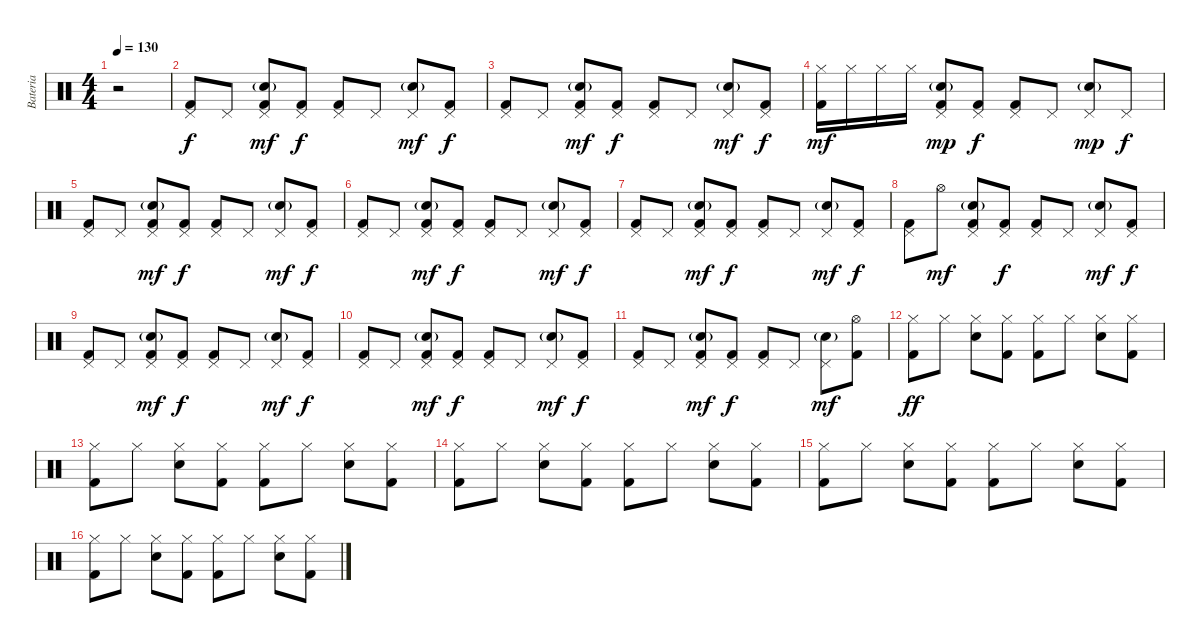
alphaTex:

\track ("Bateria" "Bateria") {instrument percussion}
\staff {score}
\articulation defaults
\ts (4 4)
\tempo 130
\clef neutral
\ks c
r.2{dy f} |
("Pedal Hi-Hat (hit)" "Kick (hit) 2").8 "Pedal Hi-Hat (hit)".8 ("Pedal Hi-Hat (hit)" "Snare (hit) 2"{g} "Kick (hit) 2").8{dy mf} ("Pedal Hi-Hat (hit)" "Kick (hit) 2").8{dy f} ("Pedal Hi-Hat (hit)" "Kick (hit) 2").8 "Pedal Hi-Hat (hit)".8 ("Pedal Hi-Hat (hit)" "Snare (hit) 2"{g}).8{dy mf} ("Pedal Hi-Hat (hit)" "Kick (hit) 2").8{dy f} |
("Pedal Hi-Hat (hit)" "Kick (hit) 2").8 "Pedal Hi-Hat (hit)".8 ("Pedal Hi-Hat (hit)" "Snare (hit) 2"{g} "Kick (hit) 2").8{dy mf} ("Pedal Hi-Hat (hit)" "Kick (hit) 2").8{dy f} ("Pedal Hi-Hat (hit)" "Kick (hit) 2").8 "Pedal Hi-Hat (hit)".8 ("Pedal Hi-Hat (hit)" "Snare (hit) 2"{g}).8{dy mf} ("Pedal Hi-Hat (hit)" "Kick (hit) 2").8{dy f} |
("Hi-Hat (closed)" "Kick (hit) 2").16{dy mf} "Hi-Hat (closed)".16 "Hi-Hat (closed)".16 "Hi-Hat (closed)".16 ("Pedal Hi-Hat (hit)" "Snare (hit) 2"{g} "Kick (hit) 2").8{dy mp} ("Pedal Hi-Hat (hit)" "Kick (hit) 2").8{dy f} ("Pedal Hi-Hat (hit)" "Kick (hit) 2").8 "Pedal Hi-Hat (hit)".8 ("Pedal Hi-Hat (hit)" "Snare (hit) 2"{g}).8{dy mp} "Pedal Hi-Hat (hit)".8{dy f} |
("Pedal Hi-Hat (hit)" "Kick (hit) 2").8 "Pedal Hi-Hat (hit)".8 ("Pedal Hi-Hat (hit)" "Snare (hit) 2"{g} "Kick (hit) 2").8{dy mf} ("Pedal Hi-Hat (hit)" "Kick (hit) 2").8{dy f} ("Pedal Hi-Hat (hit)" "Kick (hit) 2").8 "Pedal Hi-Hat (hit)".8 ("Pedal Hi-Hat (hit)" "Snare (hit) 2"{g}).8{dy mf} ("Pedal Hi-Hat (hit)" "Kick (hit) 2").8{dy f} |
("Pedal Hi-Hat (hit)" "Kick (hit) 2").8 "Pedal Hi-Hat (hit)".8 ("Pedal Hi-Hat (hit)" "Snare (hit) 2"{g} "Kick (hit) 2").8{dy mf} ("Pedal Hi-Hat (hit)" "Kick (hit) 2").8{dy f} ("Pedal Hi-Hat (hit)" "Kick (hit) 2").8 "Pedal Hi-Hat (hit)".8 ("Pedal Hi-Hat (hit)" "Snare (hit) 2"{g}).8{dy mf} ("Pedal Hi-Hat (hit)" "Kick (hit) 2").8{dy f} |
("Pedal Hi-Hat (hit)" "Kick (hit) 2").8 "Pedal Hi-Hat (hit)".8 ("Pedal Hi-Hat (hit)" "Snare (hit) 2"{g} "Kick (hit) 2").8{dy mf} ("Pedal Hi-Hat (hit)" "Kick (hit) 2").8{dy f} ("Pedal Hi-Hat (hit)" "Kick (hit) 2").8 "Pedal Hi-Hat (hit)".8 ("Pedal Hi-Hat (hit)" "Snare (hit) 2"{g}).8{dy mf} ("Pedal Hi-Hat (hit)" "Kick (hit) 2").8{dy f} |
("Pedal Hi-Hat (hit)" "Kick (hit) 2").8 "Hi-Hat (open)".8{dy mf} ("Pedal Hi-Hat (hit)" "Snare (hit) 2"{g} "Kick (hit) 2").8 ("Pedal Hi-Hat (hit)" "Kick (hit) 2").8{dy f} ("Pedal Hi-Hat (hit)" "Kick (hit) 2").8 "Pedal Hi-Hat (hit)".8 ("Pedal Hi-Hat (hit)" "Snare (hit) 2"{g}).8{dy mf} ("Pedal Hi-Hat (hit)" "Kick (hit) 2").8{dy f} |
("Pedal Hi-Hat (hit)" "Kick (hit) 2").8 "Pedal Hi-Hat (hit)".8 ("Pedal Hi-Hat (hit)" "Snare (hit) 2"{g} "Kick (hit) 2").8{dy mf} ("Pedal Hi-Hat (hit)" "Kick (hit) 2").8{dy f} ("Pedal Hi-Hat (hit)" "Kick (hit) 2").8 "Pedal Hi-Hat (hit)".8 ("Pedal Hi-Hat (hit)" "Snare (hit) 2"{g}).8{dy mf} ("Pedal Hi-Hat (hit)" "Kick (hit) 2").8{dy f} |
("Pedal Hi-Hat (hit)" "Kick (hit) 2").8 "Pedal Hi-Hat (hit)".8 ("Pedal Hi-Hat (hit)" "Snare (hit) 2"{g} "Kick (hit) 2").8{dy mf} ("Pedal Hi-Hat (hit)" "Kick (hit) 2").8{dy f} ("Pedal Hi-Hat (hit)" "Kick (hit) 2").8 "Pedal Hi-Hat (hit)".8 ("Pedal Hi-Hat (hit)" "Snare (hit) 2"{g}).8{dy mf} ("Pedal Hi-Hat (hit)" "Kick (hit) 2").8{dy f} |
("Pedal Hi-Hat (hit)" "Kick (hit) 2").8 "Pedal Hi-Hat (hit)".8 ("Pedal Hi-Hat (hit)" "Snare (hit) 2"{g} "Kick (hit) 2").8{dy mf} ("Pedal Hi-Hat (hit)" "Kick (hit) 2").8{dy f} ("Pedal Hi-Hat (hit)" "Kick (hit) 2").8 "Pedal Hi-Hat (hit)".8 ("Pedal Hi-Hat (hit)" "Snare (hit) 2"{g}).8{dy mf} ("Hi-Hat (open)" "Kick (hit) 2").8 |
("Hi-Hat (closed)" "Kick (hit) 2").8{dy ff} "Hi-Hat (closed)".8 ("Hi-Hat (closed)" "Snare (hit) 2").8 ("Hi-Hat (closed)" "Kick (hit) 2").8 ("Hi-Hat (closed)" "Kick (hit) 2").8 "Hi-Hat (closed)".8 ("Hi-Hat (closed)" "Snare (hit) 2").8 ("Hi-Hat (closed)" "Kick (hit) 2").8 |
("Hi-Hat (closed)" "Kick (hit) 2").8 "Hi-Hat (closed)".8 ("Hi-Hat (closed)" "Snare (hit) 2").8 ("Hi-Hat (closed)" "Kick (hit) 2").8 ("Hi-Hat (closed)" "Kick (hit) 2").8 "Hi-Hat (closed)".8 ("Hi-Hat (closed)" "Snare (hit) 2").8 ("Hi-Hat (closed)" "Kick (hit) 2").8 |
("Hi-Hat (closed)" "Kick (hit) 2").8 "Hi-Hat (closed)".8 ("Hi-Hat (closed)" "Snare (hit) 2").8 ("Hi-Hat (closed)" "Kick (hit) 2").8 ("Hi-Hat (closed)" "Kick (hit) 2").8 "Hi-Hat (closed)".8 ("Hi-Hat (closed)" "Snare (hit) 2").8 ("Hi-Hat (closed)" "Kick (hit) 2").8 |
("Hi-Hat (closed)" "Kick (hit) 2").8 "Hi-Hat (closed)".8 ("Hi-Hat (closed)" "Snare (hit) 2").8 ("Hi-Hat (closed)" "Kick (hit) 2").8 ("Hi-Hat (closed)" "Kick (hit) 2").8 "Hi-Hat (closed)".8 ("Hi-Hat (closed)" "Snare (hit) 2").8 ("Hi-Hat (closed)" "Kick (hit) 2").8 |
("Hi-Hat (closed)" "Kick (hit) 2").8 "Hi-Hat (closed)".8 ("Hi-Hat (closed)" "Snare (hit) 2").8 ("Hi-Hat (closed)" "Kick (hit) 2").8 ("Hi-Hat (closed)" "Kick (hit) 2").8 "Hi-Hat (closed)".8 ("Hi-Hat (closed)" "Snare (hit) 2").8 ("Hi-Hat (closed)" "Kick (hit) 2").8
